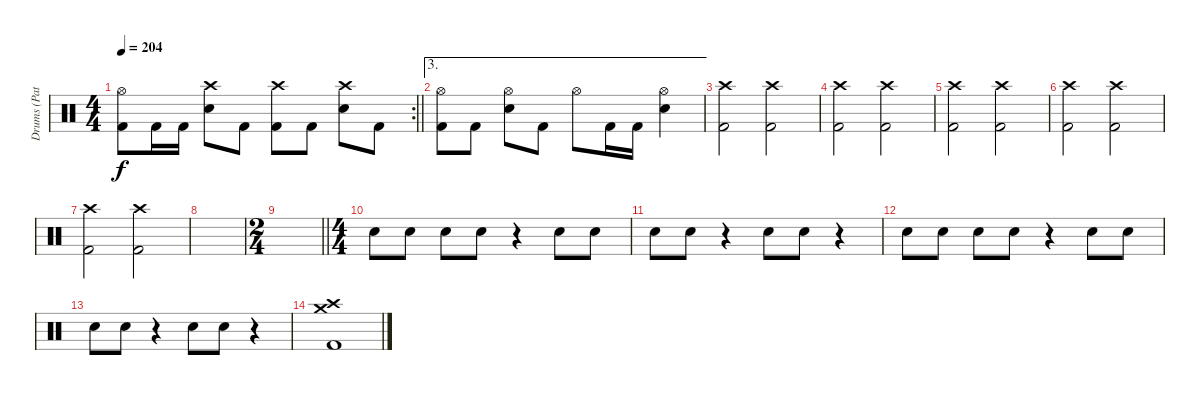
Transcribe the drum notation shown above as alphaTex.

\track ("Drums (Patrick Johansson)" "Drums (Pat") {instrument percussion}
\staff {score}
\articulation defaults
\rc 2
\ts (4 4)
\tempo 204
\clef neutral
\barLineRight lightlight
\ks c
("Hi-Hat (open)" "Kick (hit) 2").8{dy f} "Kick (hit) 2".16 "Kick (hit) 2".16 ("Crash high (hit)" "Electric Snare (hit)").8 "Kick (hit) 2".8 ("Crash high (hit)" "Kick (hit) 2").8 "Kick (hit) 2".8 ("Crash high (hit)" "Electric Snare (hit)").8 "Kick (hit) 2".8 |
\ae 3
("Hi-Hat (open)" "Kick (hit) 2").8 "Kick (hit) 2".8 ("Electric Snare (hit)" "Hi-Hat (open)").8 "Kick (hit) 2".8 "Hi-Hat (open)".8 "Kick (hit) 2".16 "Kick (hit) 2".16 ("Electric Snare (hit)" "Hi-Hat (open)").4 |
("Crash high (hit)" "Kick (hit) 2").2 ("Crash high (hit)" "Kick (hit) 2").2 |
("Crash high (hit)" "Kick (hit) 2").2 ("Crash high (hit)" "Kick (hit) 2").2 |
("Crash high (hit)" "Kick (hit) 2").2 ("Crash high (hit)" "Kick (hit) 2").2 |
("Crash high (hit)" "Kick (hit) 2").2 ("Crash high (hit)" "Kick (hit) 2").2 |
("Crash high (hit)" "Kick (hit) 2").2 ("Crash high (hit)" "Kick (hit) 2").2 |
|
\ts (2 4)
\barLineRight lightlight
|
\ts (4 4)
"Electric Snare (hit)".8 "Electric Snare (hit)".8 "Electric Snare (hit)".8 "Electric Snare (hit)".8 r.4 "Electric Snare (hit)".8 "Electric Snare (hit)".8 |
"Electric Snare (hit)".8 "Electric Snare (hit)".8 r.4 "Electric Snare (hit)".8 "Electric Snare (hit)".8 r.4 |
"Electric Snare (hit)".8 "Electric Snare (hit)".8 "Electric Snare (hit)".8 "Electric Snare (hit)".8 r.4 "Electric Snare (hit)".8 "Electric Snare (hit)".8 |
"Electric Snare (hit)".8 "Electric Snare (hit)".8 r.4 "Electric Snare (hit)".8 "Electric Snare (hit)".8 r.4 |
("Crash medium (hit)" "Crash high (hit)" "Kick (hit) 2").1
